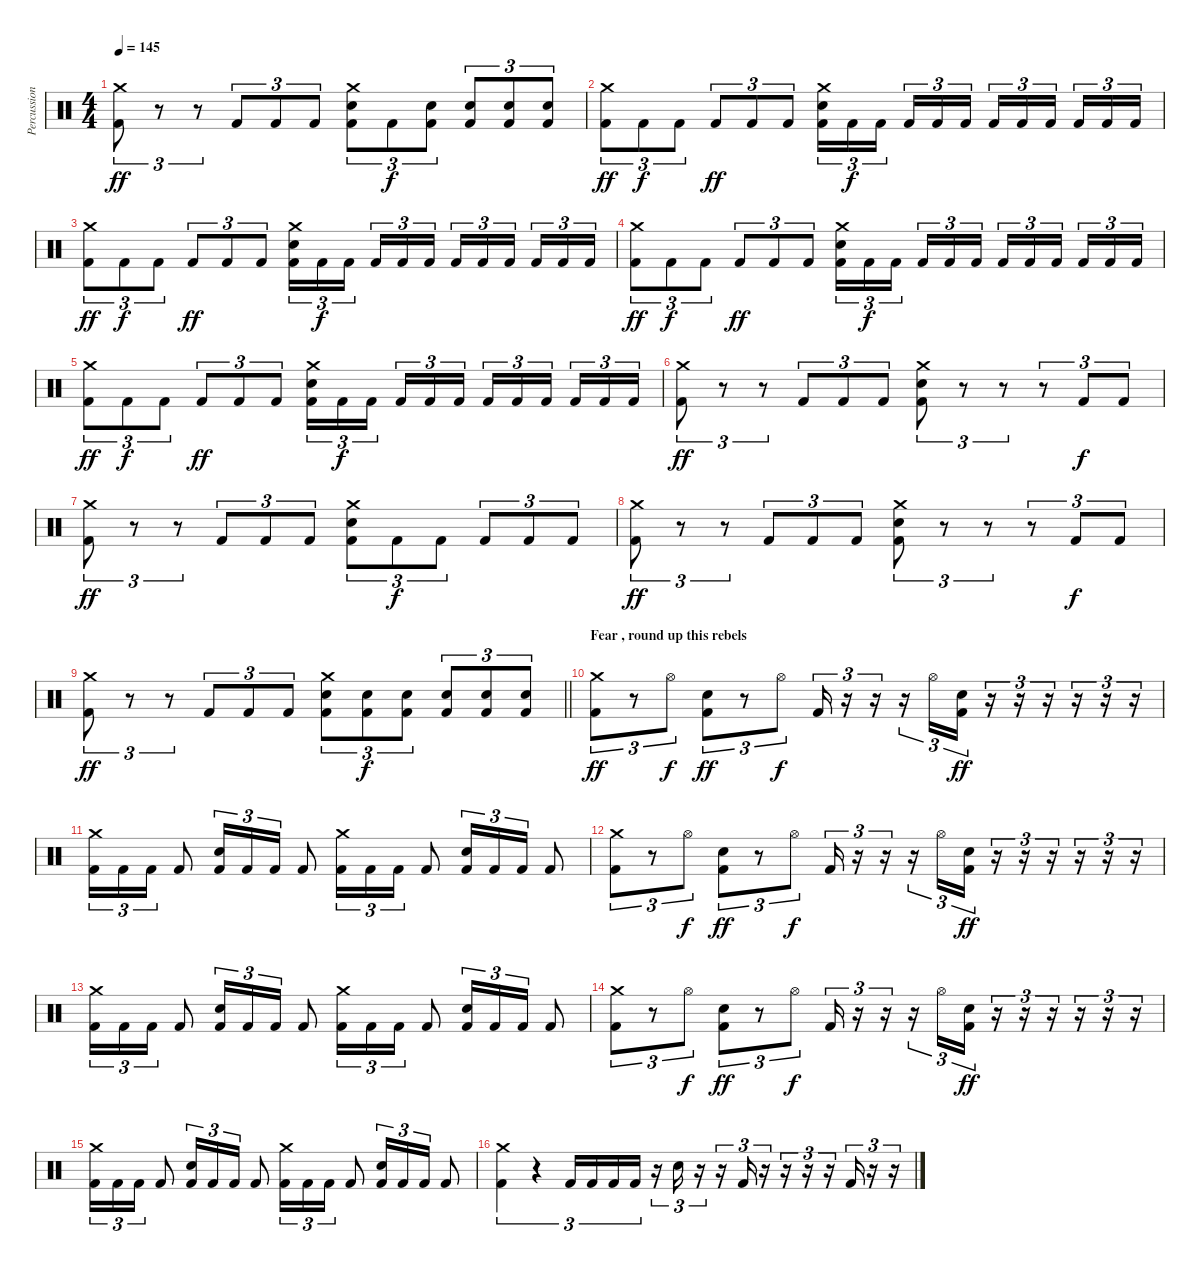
\track ("Percussion" "Percussion") {instrument percussion}
\staff {score}
\articulation defaults
\ts (4 4)
\tempo 145
\clef neutral
\ks c
("Crash medium (hit)" "Kick (hit) 2").8{tu (3 2) dy ff} r.8{tu (3 2)} r.8{tu (3 2)} "Kick (hit) 2".8{tu (3 2)} "Kick (hit) 2".8{tu (3 2)} "Kick (hit) 2".8{tu (3 2)} ("Electric Snare (hit)" "Crash medium (hit)" "Kick (hit) 2").8{tu (3 2)} "Kick (hit) 2".8{tu (3 2) dy f} ("Electric Snare (hit)" "Kick (hit) 2").8{tu (3 2)} ("Electric Snare (hit)" "Kick (hit) 2").8{tu (3 2)} ("Electric Snare (hit)" "Kick (hit) 2").8{tu (3 2)} ("Electric Snare (hit)" "Kick (hit) 2").8{tu (3 2)} |
("Crash medium (hit)" "Kick (hit) 2").8{tu (3 2) dy ff} "Kick (hit) 2".8{tu (3 2) dy f} "Kick (hit) 2".8{tu (3 2)} "Kick (hit) 2".8{tu (3 2) dy ff} "Kick (hit) 2".8{tu (3 2)} "Kick (hit) 2".8{tu (3 2)} ("Crash medium (hit)" "Electric Snare (hit)" "Kick (hit) 2").16{tu (3 2)} "Kick (hit) 2".16{tu (3 2) dy f} "Kick (hit) 2".16{tu (3 2) beam splitsecondary} "Kick (hit) 2".16{tu (3 2)} "Kick (hit) 2".16{tu (3 2)} "Kick (hit) 2".16{tu (3 2)} "Kick (hit) 2".16{tu (3 2)} "Kick (hit) 2".16{tu (3 2)} "Kick (hit) 2".16{tu (3 2) beam splitsecondary} "Kick (hit) 2".16{tu (3 2)} "Kick (hit) 2".16{tu (3 2)} "Kick (hit) 2".16{tu (3 2)} |
("Crash medium (hit)" "Kick (hit) 2").8{tu (3 2) dy ff} "Kick (hit) 2".8{tu (3 2) dy f} "Kick (hit) 2".8{tu (3 2)} "Kick (hit) 2".8{tu (3 2) dy ff} "Kick (hit) 2".8{tu (3 2)} "Kick (hit) 2".8{tu (3 2)} ("Crash medium (hit)" "Electric Snare (hit)" "Kick (hit) 2").16{tu (3 2)} "Kick (hit) 2".16{tu (3 2) dy f} "Kick (hit) 2".16{tu (3 2) beam splitsecondary} "Kick (hit) 2".16{tu (3 2)} "Kick (hit) 2".16{tu (3 2)} "Kick (hit) 2".16{tu (3 2)} "Kick (hit) 2".16{tu (3 2)} "Kick (hit) 2".16{tu (3 2)} "Kick (hit) 2".16{tu (3 2) beam splitsecondary} "Kick (hit) 2".16{tu (3 2)} "Kick (hit) 2".16{tu (3 2)} "Kick (hit) 2".16{tu (3 2)} |
("Crash medium (hit)" "Kick (hit) 2").8{tu (3 2) dy ff} "Kick (hit) 2".8{tu (3 2) dy f} "Kick (hit) 2".8{tu (3 2)} "Kick (hit) 2".8{tu (3 2) dy ff} "Kick (hit) 2".8{tu (3 2)} "Kick (hit) 2".8{tu (3 2)} ("Crash medium (hit)" "Electric Snare (hit)" "Kick (hit) 2").16{tu (3 2)} "Kick (hit) 2".16{tu (3 2) dy f} "Kick (hit) 2".16{tu (3 2) beam splitsecondary} "Kick (hit) 2".16{tu (3 2)} "Kick (hit) 2".16{tu (3 2)} "Kick (hit) 2".16{tu (3 2)} "Kick (hit) 2".16{tu (3 2)} "Kick (hit) 2".16{tu (3 2)} "Kick (hit) 2".16{tu (3 2) beam splitsecondary} "Kick (hit) 2".16{tu (3 2)} "Kick (hit) 2".16{tu (3 2)} "Kick (hit) 2".16{tu (3 2)} |
("Crash medium (hit)" "Kick (hit) 2").8{tu (3 2) dy ff} "Kick (hit) 2".8{tu (3 2) dy f} "Kick (hit) 2".8{tu (3 2)} "Kick (hit) 2".8{tu (3 2) dy ff} "Kick (hit) 2".8{tu (3 2)} "Kick (hit) 2".8{tu (3 2)} ("Crash medium (hit)" "Electric Snare (hit)" "Kick (hit) 2").16{tu (3 2)} "Kick (hit) 2".16{tu (3 2) dy f} "Kick (hit) 2".16{tu (3 2) beam splitsecondary} "Kick (hit) 2".16{tu (3 2)} "Kick (hit) 2".16{tu (3 2)} "Kick (hit) 2".16{tu (3 2)} "Kick (hit) 2".16{tu (3 2)} "Kick (hit) 2".16{tu (3 2)} "Kick (hit) 2".16{tu (3 2) beam splitsecondary} "Kick (hit) 2".16{tu (3 2)} "Kick (hit) 2".16{tu (3 2)} "Kick (hit) 2".16{tu (3 2)} |
("Crash medium (hit)" "Kick (hit) 2").8{tu (3 2) dy ff} r.8{tu (3 2)} r.8{tu (3 2)} "Kick (hit) 2".8{tu (3 2)} "Kick (hit) 2".8{tu (3 2)} "Kick (hit) 2".8{tu (3 2)} ("Electric Snare (hit)" "Crash medium (hit)" "Kick (hit) 2").8{tu (3 2)} r.8{tu (3 2)} r.8{tu (3 2)} r.8{tu (3 2)} "Kick (hit) 2".8{tu (3 2) dy f} "Kick (hit) 2".8{tu (3 2)} |
("Crash medium (hit)" "Kick (hit) 2").8{tu (3 2) dy ff} r.8{tu (3 2)} r.8{tu (3 2)} "Kick (hit) 2".8{tu (3 2)} "Kick (hit) 2".8{tu (3 2)} "Kick (hit) 2".8{tu (3 2)} ("Electric Snare (hit)" "Crash medium (hit)" "Kick (hit) 2").8{tu (3 2)} "Kick (hit) 2".8{tu (3 2) dy f} "Kick (hit) 2".8{tu (3 2)} "Kick (hit) 2".8{tu (3 2)} "Kick (hit) 2".8{tu (3 2)} "Kick (hit) 2".8{tu (3 2)} |
("Crash medium (hit)" "Kick (hit) 2").8{tu (3 2) dy ff} r.8{tu (3 2)} r.8{tu (3 2)} "Kick (hit) 2".8{tu (3 2)} "Kick (hit) 2".8{tu (3 2)} "Kick (hit) 2".8{tu (3 2)} ("Electric Snare (hit)" "Crash medium (hit)" "Kick (hit) 2").8{tu (3 2)} r.8{tu (3 2)} r.8{tu (3 2)} r.8{tu (3 2)} "Kick (hit) 2".8{tu (3 2) dy f} "Kick (hit) 2".8{tu (3 2)} |
\barLineRight lightlight
("Crash medium (hit)" "Kick (hit) 2").8{tu (3 2) dy ff} r.8{tu (3 2)} r.8{tu (3 2)} "Kick (hit) 2".8{tu (3 2)} "Kick (hit) 2".8{tu (3 2)} "Kick (hit) 2".8{tu (3 2)} ("Electric Snare (hit)" "Crash medium (hit)" "Kick (hit) 2").8{tu (3 2)} ("Electric Snare (hit)" "Kick (hit) 2").8{tu (3 2) dy f} ("Electric Snare (hit)" "Kick (hit) 2").8{tu (3 2)} ("Electric Snare (hit)" "Kick (hit) 2").8{tu (3 2)} ("Electric Snare (hit)" "Kick (hit) 2").8{tu (3 2)} ("Electric Snare (hit)" "Kick (hit) 2").8{tu (3 2)} |
\section ("" "Fear , round up this rebels")
("Crash medium (hit)" "Kick (hit) 2").8{tu (3 2) dy ff} r.8{tu (3 2)} "Hi-Hat (open)".8{tu (3 2) dy f} ("Electric Snare (hit)" "Kick (hit) 2").8{tu (3 2) dy ff} r.8{tu (3 2)} "Hi-Hat (open)".8{tu (3 2) dy f} "Kick (hit) 2".16{tu (3 2)} r.16{tu (3 2)} r.16{tu (3 2)} r.16{tu (3 2)} "Hi-Hat (open)".16{tu (3 2)} ("Electric Snare (hit)" "Kick (hit) 2").16{tu (3 2) dy ff} r.16{tu (3 2)} r.16{tu (3 2)} r.16{tu (3 2)} r.16{tu (3 2)} r.16{tu (3 2)} r.16{tu (3 2)} |
("Crash medium (hit)" "Kick (hit) 2").16{tu (3 2)} "Kick (hit) 2".16{tu (3 2)} "Kick (hit) 2".16{tu (3 2)} "Kick (hit) 2".8 ("Electric Snare (hit)" "Kick (hit) 2").16{tu (3 2)} "Kick (hit) 2".16{tu (3 2)} "Kick (hit) 2".16{tu (3 2)} "Kick (hit) 2".8 ("Crash medium (hit)" "Kick (hit) 2").16{tu (3 2)} "Kick (hit) 2".16{tu (3 2)} "Kick (hit) 2".16{tu (3 2)} "Kick (hit) 2".8 ("Electric Snare (hit)" "Kick (hit) 2").16{tu (3 2)} "Kick (hit) 2".16{tu (3 2)} "Kick (hit) 2".16{tu (3 2)} "Kick (hit) 2".8 |
("Crash medium (hit)" "Kick (hit) 2").8{tu (3 2)} r.8{tu (3 2)} "Hi-Hat (open)".8{tu (3 2) dy f} ("Electric Snare (hit)" "Kick (hit) 2").8{tu (3 2) dy ff} r.8{tu (3 2)} "Hi-Hat (open)".8{tu (3 2) dy f} "Kick (hit) 2".16{tu (3 2)} r.16{tu (3 2)} r.16{tu (3 2)} r.16{tu (3 2)} "Hi-Hat (open)".16{tu (3 2)} ("Electric Snare (hit)" "Kick (hit) 2").16{tu (3 2) dy ff} r.16{tu (3 2)} r.16{tu (3 2)} r.16{tu (3 2)} r.16{tu (3 2)} r.16{tu (3 2)} r.16{tu (3 2)} |
("Crash medium (hit)" "Kick (hit) 2").16{tu (3 2)} "Kick (hit) 2".16{tu (3 2)} "Kick (hit) 2".16{tu (3 2)} "Kick (hit) 2".8 ("Electric Snare (hit)" "Kick (hit) 2").16{tu (3 2)} "Kick (hit) 2".16{tu (3 2)} "Kick (hit) 2".16{tu (3 2)} "Kick (hit) 2".8 ("Crash medium (hit)" "Kick (hit) 2").16{tu (3 2)} "Kick (hit) 2".16{tu (3 2)} "Kick (hit) 2".16{tu (3 2)} "Kick (hit) 2".8 ("Electric Snare (hit)" "Kick (hit) 2").16{tu (3 2)} "Kick (hit) 2".16{tu (3 2)} "Kick (hit) 2".16{tu (3 2)} "Kick (hit) 2".8 |
("Crash medium (hit)" "Kick (hit) 2").8{tu (3 2)} r.8{tu (3 2)} "Hi-Hat (open)".8{tu (3 2) dy f} ("Electric Snare (hit)" "Kick (hit) 2").8{tu (3 2) dy ff} r.8{tu (3 2)} "Hi-Hat (open)".8{tu (3 2) dy f} "Kick (hit) 2".16{tu (3 2)} r.16{tu (3 2)} r.16{tu (3 2)} r.16{tu (3 2)} "Hi-Hat (open)".16{tu (3 2)} ("Electric Snare (hit)" "Kick (hit) 2").16{tu (3 2) dy ff} r.16{tu (3 2)} r.16{tu (3 2)} r.16{tu (3 2)} r.16{tu (3 2)} r.16{tu (3 2)} r.16{tu (3 2)} |
("Crash medium (hit)" "Kick (hit) 2").16{tu (3 2)} "Kick (hit) 2".16{tu (3 2)} "Kick (hit) 2".16{tu (3 2)} "Kick (hit) 2".8 ("Electric Snare (hit)" "Kick (hit) 2").16{tu (3 2)} "Kick (hit) 2".16{tu (3 2)} "Kick (hit) 2".16{tu (3 2)} "Kick (hit) 2".8 ("Crash medium (hit)" "Kick (hit) 2").16{tu (3 2)} "Kick (hit) 2".16{tu (3 2)} "Kick (hit) 2".16{tu (3 2)} "Kick (hit) 2".8 ("Electric Snare (hit)" "Kick (hit) 2").16{tu (3 2)} "Kick (hit) 2".16{tu (3 2)} "Kick (hit) 2".16{tu (3 2)} "Kick (hit) 2".8 |
("Crash medium (hit)" "Kick (hit) 2").4{tu (3 2)} r.4{tu (3 2)} "Kick (hit) 2".16{tu (3 2)} "Kick (hit) 2".16{tu (3 2)} "Kick (hit) 2".16{tu (3 2)} "Kick (hit) 2".16{tu (3 2)} r.16{tu (3 2)} "Electric Snare (hit)".16{tu (3 2)} r.16{tu (3 2)} r.16{tu (3 2)} "Kick (hit) 2".16{tu (3 2)} r.16{tu (3 2)} r.16{tu (3 2)} r.16{tu (3 2)} r.16{tu (3 2)} "Kick (hit) 2".16{tu (3 2)} r.16{tu (3 2)} r.16{tu (3 2)}
